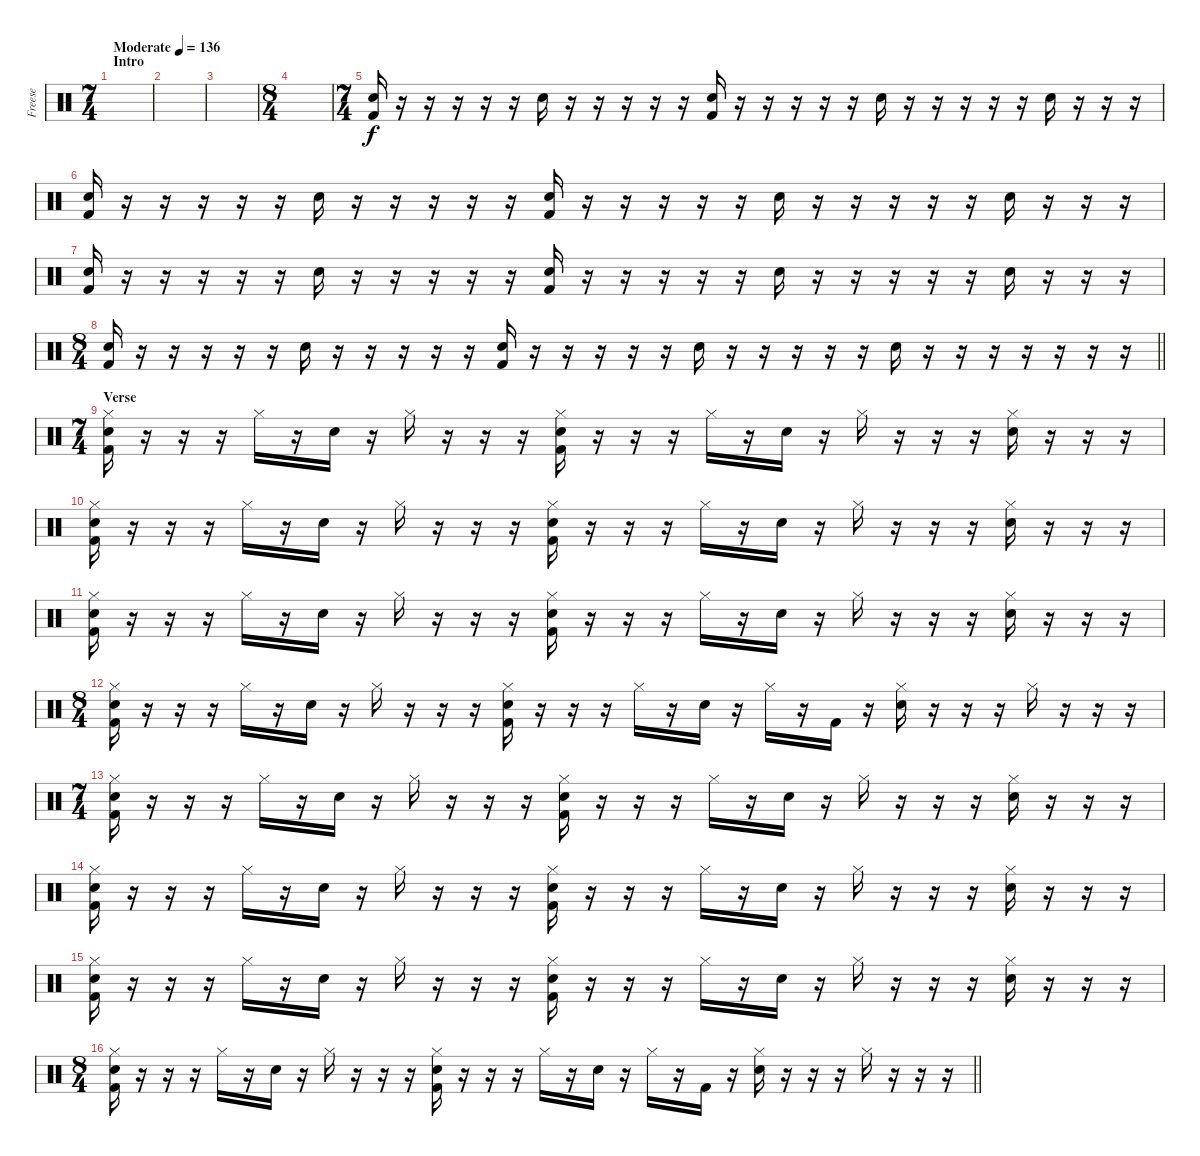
\track ("Freese" "Freese") {instrument percussion}
\staff {score}
\articulation defaults
\ts (7 4)
\section ("" "Intro")
\tempo (136 "Moderate")
\clef neutral
\ks c
|
|
|
\ts (8 4)
|
\ts (7 4)
("Snare (hit) 2" "Kick (hit) 2").16 r.16 r.16 r.16 r.16 r.16 "Snare (hit) 2".16 r.16 r.16 r.16 r.16 r.16 ("Snare (hit) 2" "Kick (hit) 2").16 r.16 r.16 r.16 r.16 r.16 "Snare (hit) 2".16 r.16 r.16 r.16 r.16 r.16 "Snare (hit) 2".16 r.16 r.16 r.16 |
("Snare (hit) 2" "Kick (hit) 2").16 r.16 r.16 r.16 r.16 r.16 "Snare (hit) 2".16 r.16 r.16 r.16 r.16 r.16 ("Snare (hit) 2" "Kick (hit) 2").16 r.16 r.16 r.16 r.16 r.16 "Snare (hit) 2".16 r.16 r.16 r.16 r.16 r.16 "Snare (hit) 2".16 r.16 r.16 r.16 |
("Snare (hit) 2" "Kick (hit) 2").16 r.16 r.16 r.16 r.16 r.16 "Snare (hit) 2".16 r.16 r.16 r.16 r.16 r.16 ("Snare (hit) 2" "Kick (hit) 2").16 r.16 r.16 r.16 r.16 r.16 "Snare (hit) 2".16 r.16 r.16 r.16 r.16 r.16 "Snare (hit) 2".16 r.16 r.16 r.16 |
\ts (8 4)
\barLineRight lightlight
("Snare (hit) 2" "Kick (hit) 2").16 r.16 r.16 r.16 r.16 r.16 "Snare (hit) 2".16 r.16 r.16 r.16 r.16 r.16 ("Snare (hit) 2" "Kick (hit) 2").16 r.16 r.16 r.16 r.16 r.16 "Snare (hit) 2".16 r.16 r.16 r.16 r.16 r.16 "Snare (hit) 2".16 r.16 r.16 r.16 r.16 r.16 r.16 r.16 |
\ts (7 4)
\section ("" "Verse")
("Hi-Hat (closed)" "Snare (hit) 2" "Kick (hit) 2").16 r.16 r.16 r.16 "Hi-Hat (closed)".16 r.16 "Snare (hit) 2".16 r.16 "Hi-Hat (closed)".16 r.16 r.16 r.16 ("Hi-Hat (closed)" "Snare (hit) 2" "Kick (hit) 2").16 r.16 r.16 r.16 "Hi-Hat (closed)".16 r.16 "Snare (hit) 2".16 r.16 "Hi-Hat (closed)".16 r.16 r.16 r.16 ("Hi-Hat (closed)" "Snare (hit) 2").16 r.16 r.16 r.16 |
("Hi-Hat (closed)" "Snare (hit) 2" "Kick (hit) 2").16 r.16 r.16 r.16 "Hi-Hat (closed)".16 r.16 "Snare (hit) 2".16 r.16 "Hi-Hat (closed)".16 r.16 r.16 r.16 ("Hi-Hat (closed)" "Snare (hit) 2" "Kick (hit) 2").16 r.16 r.16 r.16 "Hi-Hat (closed)".16 r.16 "Snare (hit) 2".16 r.16 "Hi-Hat (closed)".16 r.16 r.16 r.16 ("Hi-Hat (closed)" "Snare (hit) 2").16 r.16 r.16 r.16 |
("Hi-Hat (closed)" "Snare (hit) 2" "Kick (hit) 2").16 r.16 r.16 r.16 "Hi-Hat (closed)".16 r.16 "Snare (hit) 2".16 r.16 "Hi-Hat (closed)".16 r.16 r.16 r.16 ("Hi-Hat (closed)" "Snare (hit) 2" "Kick (hit) 2").16 r.16 r.16 r.16 "Hi-Hat (closed)".16 r.16 "Snare (hit) 2".16 r.16 "Hi-Hat (closed)".16 r.16 r.16 r.16 ("Hi-Hat (closed)" "Snare (hit) 2").16 r.16 r.16 r.16 |
\ts (8 4)
("Hi-Hat (closed)" "Snare (hit) 2" "Kick (hit) 2").16 r.16 r.16 r.16 "Hi-Hat (closed)".16 r.16 "Snare (hit) 2".16 r.16 "Hi-Hat (closed)".16 r.16 r.16 r.16 ("Hi-Hat (closed)" "Snare (hit) 2" "Kick (hit) 2").16 r.16 r.16 r.16 "Hi-Hat (closed)".16 r.16 "Snare (hit) 2".16 r.16 "Hi-Hat (closed)".16 r.16 "Kick (hit) 2".16 r.16 ("Hi-Hat (closed)" "Snare (hit) 2").16 r.16 r.16 r.16 "Hi-Hat (closed)".16 r.16 r.16 r.16 |
\ts (7 4)
("Hi-Hat (closed)" "Snare (hit) 2" "Kick (hit) 2").16 r.16 r.16 r.16 "Hi-Hat (closed)".16 r.16 "Snare (hit) 2".16 r.16 "Hi-Hat (closed)".16 r.16 r.16 r.16 ("Hi-Hat (closed)" "Snare (hit) 2" "Kick (hit) 2").16 r.16 r.16 r.16 "Hi-Hat (closed)".16 r.16 "Snare (hit) 2".16 r.16 "Hi-Hat (closed)".16 r.16 r.16 r.16 ("Hi-Hat (closed)" "Snare (hit) 2").16 r.16 r.16 r.16 |
("Hi-Hat (closed)" "Snare (hit) 2" "Kick (hit) 2").16 r.16 r.16 r.16 "Hi-Hat (closed)".16 r.16 "Snare (hit) 2".16 r.16 "Hi-Hat (closed)".16 r.16 r.16 r.16 ("Hi-Hat (closed)" "Snare (hit) 2" "Kick (hit) 2").16 r.16 r.16 r.16 "Hi-Hat (closed)".16 r.16 "Snare (hit) 2".16 r.16 "Hi-Hat (closed)".16 r.16 r.16 r.16 ("Hi-Hat (closed)" "Snare (hit) 2").16 r.16 r.16 r.16 |
("Hi-Hat (closed)" "Snare (hit) 2" "Kick (hit) 2").16 r.16 r.16 r.16 "Hi-Hat (closed)".16 r.16 "Snare (hit) 2".16 r.16 "Hi-Hat (closed)".16 r.16 r.16 r.16 ("Hi-Hat (closed)" "Snare (hit) 2" "Kick (hit) 2").16 r.16 r.16 r.16 "Hi-Hat (closed)".16 r.16 "Snare (hit) 2".16 r.16 "Hi-Hat (closed)".16 r.16 r.16 r.16 ("Hi-Hat (closed)" "Snare (hit) 2").16 r.16 r.16 r.16 |
\ts (8 4)
\barLineRight lightlight
("Hi-Hat (closed)" "Snare (hit) 2" "Kick (hit) 2").16 r.16 r.16 r.16 "Hi-Hat (closed)".16 r.16 "Snare (hit) 2".16 r.16 "Hi-Hat (closed)".16 r.16 r.16 r.16 ("Hi-Hat (closed)" "Snare (hit) 2" "Kick (hit) 2").16 r.16 r.16 r.16 "Hi-Hat (closed)".16 r.16 "Snare (hit) 2".16 r.16 "Hi-Hat (closed)".16 r.16 "Kick (hit) 2".16 r.16 ("Hi-Hat (closed)" "Snare (hit) 2").16 r.16 r.16 r.16 "Hi-Hat (closed)".16 r.16 r.16 r.16
